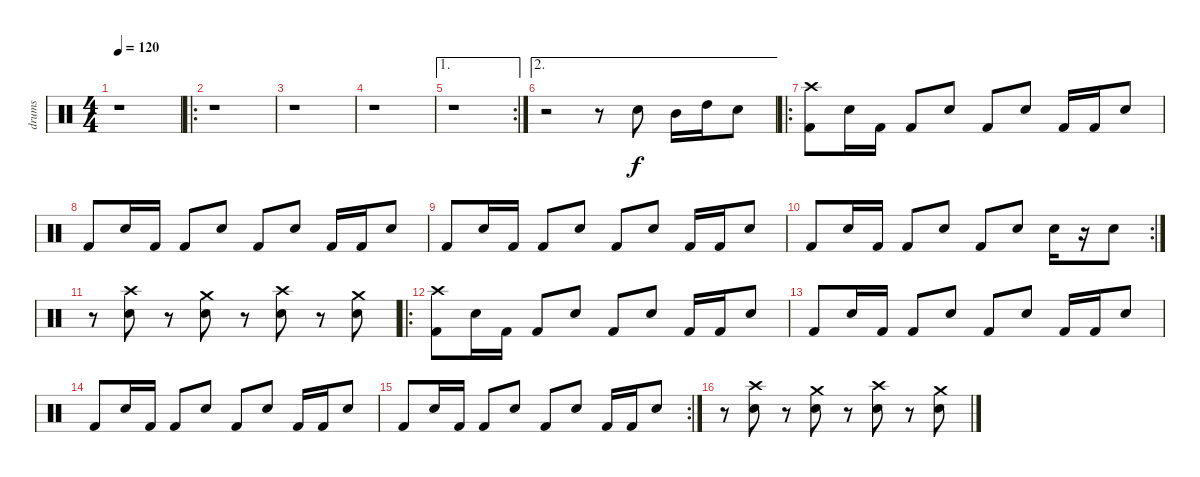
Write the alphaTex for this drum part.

\track ("drums" "drums") {instrument percussion}
\staff {score}
\articulation defaults
\ts (4 4)
\tempo 120
\clef neutral
\ks c
r.1{dy f} |
\ro
r.1 |
r.1 |
r.1 |
\ae 1
\rc 2
r.1 |
\ae 2
r.2 r.8 "Electric Snare (hit)".8 "Mid Tom (hit)".16 "High Tom (hit)".16 "Electric Snare (hit)".8 |
\ro
("Crash high (hit)" "Kick (hit) 2").8 "Electric Snare (hit)".16 "Kick (hit) 2".16 "Kick (hit) 2".8 "Electric Snare (hit)".8 "Kick (hit) 2".8 "Electric Snare (hit)".8 "Kick (hit) 2".16 "Kick (hit) 2".16 "Electric Snare (hit)".8 |
"Kick (hit) 2".8 "Electric Snare (hit)".16 "Kick (hit) 2".16 "Kick (hit) 2".8 "Electric Snare (hit)".8 "Kick (hit) 2".8 "Electric Snare (hit)".8 "Kick (hit) 2".16 "Kick (hit) 2".16 "Electric Snare (hit)".8 |
"Kick (hit) 2".8 "Electric Snare (hit)".16 "Kick (hit) 2".16 "Kick (hit) 2".8 "Electric Snare (hit)".8 "Kick (hit) 2".8 "Electric Snare (hit)".8 "Kick (hit) 2".16 "Kick (hit) 2".16 "Electric Snare (hit)".8 |
\rc 2 "Kick (hit) 2".8 "Electric Snare (hit)".16 "Kick (hit) 2".16 "Kick (hit) 2".8 "Electric Snare (hit)".8 "Kick (hit) 2".8 "Electric Snare (hit)".8 "Electric Snare (hit)".16
r.16 "Electric Snare (hit)".8 |
r.8 ("Crash high (hit)" "Electric Snare (hit)").8 r.8 ("Crash medium (hit)" "Electric Snare (hit)").8 r.8 ("Crash high (hit)" "Electric Snare (hit)").8 r.8 ("Crash medium (hit)" "Electric Snare (hit)").8 |
\ro
("Crash high (hit)" "Kick (hit) 2").8 "Electric Snare (hit)".16 "Kick (hit) 2".16 "Kick (hit) 2".8 "Electric Snare (hit)".8 "Kick (hit) 2".8 "Electric Snare (hit)".8 "Kick (hit) 2".16 "Kick (hit) 2".16 "Electric Snare (hit)".8 |
"Kick (hit) 2".8 "Electric Snare (hit)".16 "Kick (hit) 2".16 "Kick (hit) 2".8 "Electric Snare (hit)".8 "Kick (hit) 2".8 "Electric Snare (hit)".8 "Kick (hit) 2".16 "Kick (hit) 2".16 "Electric Snare (hit)".8 |
"Kick (hit) 2".8 "Electric Snare (hit)".16 "Kick (hit) 2".16 "Kick (hit) 2".8 "Electric Snare (hit)".8 "Kick (hit) 2".8 "Electric Snare (hit)".8 "Kick (hit) 2".16 "Kick (hit) 2".16 "Electric Snare (hit)".8 |
\rc 2 "Kick (hit) 2".8 "Electric Snare (hit)".16 "Kick (hit) 2".16 "Kick (hit) 2".8 "Electric Snare (hit)".8 "Kick (hit) 2".8 "Electric Snare (hit)".8 "Kick (hit) 2".16 "Kick (hit) 2".16 "Electric Snare (hit)".8
|
r.8 ("Crash high (hit)" "Electric Snare (hit)").8 r.8 ("Crash medium (hit)" "Electric Snare (hit)").8 r.8 ("Crash high (hit)" "Electric Snare (hit)").8 r.8 ("Crash medium (hit)" "Electric Snare (hit)").8
